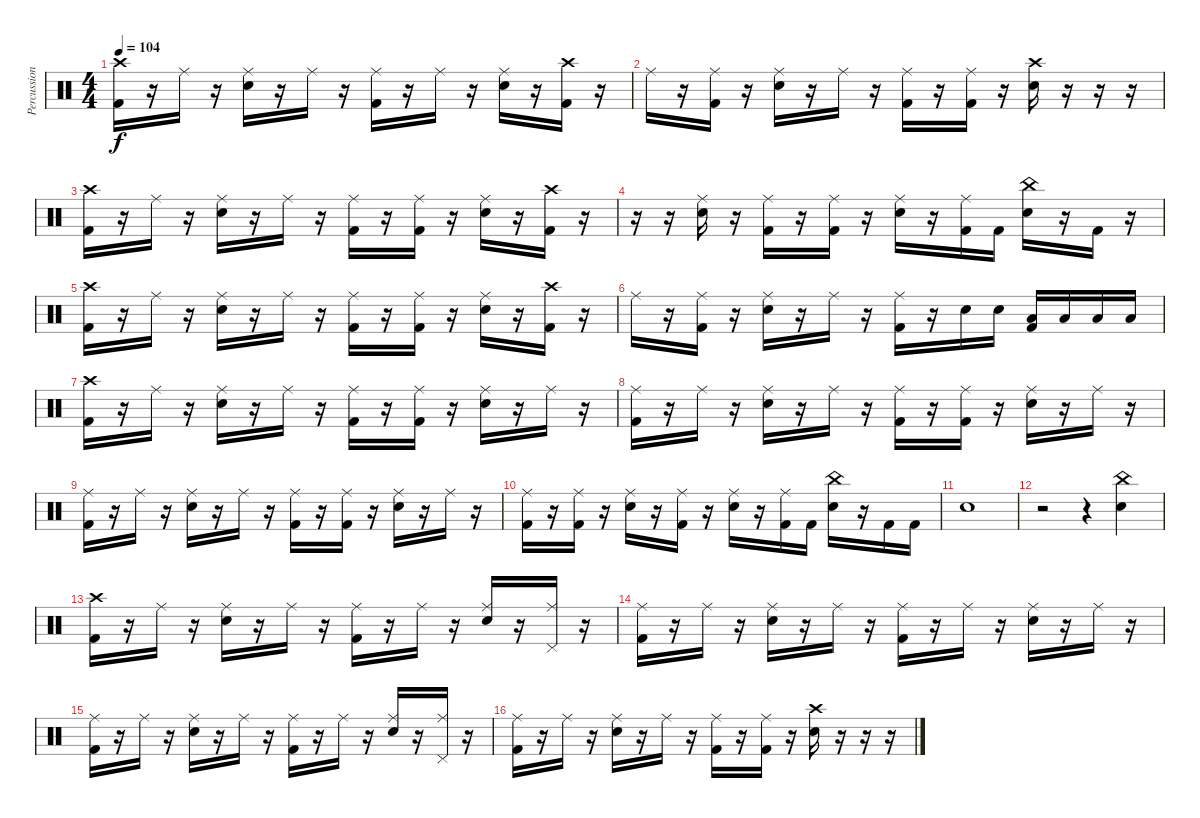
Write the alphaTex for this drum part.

\track ("Percussion" "Percussion") {instrument percussion}
\staff {score}
\articulation defaults
\ts (4 4)
\tempo 104
\clef neutral
\ks c
("Crash high (hit)" "Kick (hit) 2").16{dy f} r.16 "Ride (middle)".16 r.16 ("Ride (middle)" "Snare (hit) 2").16 r.16 "Ride (middle)".16 r.16 ("Ride (middle)" "Kick (hit) 2").16 r.16 "Ride (middle)".16 r.16 ("Ride (middle)" "Snare (hit) 2").16 r.16 ("Crash high (hit)" "Kick (hit) 2").16 r.16 |
"Ride (middle)".16 r.16 ("Ride (middle)" "Kick (hit) 2").16 r.16 ("Ride (middle)" "Snare (hit) 2").16 r.16 "Ride (middle)".16 r.16 ("Ride (middle)" "Kick (hit) 2").16 r.16 ("Ride (middle)" "Kick (hit) 2").16 r.16 ("Crash high (hit)" "Snare (hit) 2").16 r.16 r.16 r.16 |
("Crash high (hit)" "Kick (hit) 2").16 r.16 "Ride (middle)".16 r.16 ("Ride (middle)" "Snare (hit) 2").16 r.16 "Ride (middle)".16 r.16 ("Ride (middle)" "Kick (hit) 2").16 r.16 ("Ride (middle)" "Kick (hit) 2").16 r.16 ("Ride (middle)" "Snare (hit) 2").16 r.16 ("Crash high (hit)" "Kick (hit) 2").16 r.16 |
r.16 r.16 ("Ride (middle)" "Snare (hit) 2").16 r.16 ("Ride (middle)" "Kick (hit) 2").16 r.16 ("Ride (middle)" "Kick (hit) 2").16 r.16 ("Ride (middle)" "Snare (hit) 2").16 r.16 ("Ride (middle)" "Kick (hit) 2").16 "Kick (hit) 2".16 ("China (hit)" "Snare (hit) 2").16 r.16 "Kick (hit) 2".16 r.16 |
("Crash high (hit)" "Kick (hit) 2").16 r.16 "Ride (middle)".16 r.16 ("Ride (middle)" "Snare (hit) 2").16 r.16 "Ride (middle)".16 r.16 ("Ride (middle)" "Kick (hit) 2").16 r.16 ("Ride (middle)" "Kick (hit) 2").16 r.16 ("Ride (middle)" "Snare (hit) 2").16 r.16 ("Crash high (hit)" "Kick (hit) 2").16 r.16 |
"Ride (middle)".16 r.16 ("Ride (middle)" "Kick (hit) 2").16 r.16 ("Ride (middle)" "Snare (hit) 2").16 r.16 "Ride (middle)".16 r.16 ("Ride (middle)" "Kick (hit) 2").16 r.16 "Snare (hit) 2".16 "Snare (hit) 2".16 ("Low Tom (hit)" "Kick (hit) 2").16 "Low Tom (hit)".16 "Low Floor Tom (hit)".16 "Low Floor Tom (hit)".16 |
("Crash high (hit)" "Kick (hit) 2").16 r.16 "Ride (middle)".16 r.16 ("Ride (middle)" "Snare (hit) 2").16 r.16 "Ride (middle)".16 r.16 ("Ride (middle)" "Kick (hit) 2").16 r.16 ("Ride (middle)" "Kick (hit) 2").16 r.16 ("Ride (middle)" "Snare (hit) 2").16 r.16 "Ride (middle)".16 r.16 |
("Ride (middle)" "Kick (hit) 2").16 r.16 "Ride (middle)".16 r.16 ("Ride (middle)" "Snare (hit) 2").16 r.16 "Ride (middle)".16 r.16 ("Ride (middle)" "Kick (hit) 2").16 r.16 ("Ride (middle)" "Kick (hit) 2").16 r.16 ("Ride (middle)" "Snare (hit) 2").16 r.16 "Ride (middle)".16 r.16 |
("Ride (middle)" "Kick (hit) 2").16 r.16 "Ride (middle)".16 r.16 ("Ride (middle)" "Snare (hit) 2").16 r.16 "Ride (middle)".16 r.16 ("Ride (middle)" "Kick (hit) 2").16 r.16 ("Ride (middle)" "Kick (hit) 2").16 r.16 ("Ride (middle)" "Snare (hit) 2").16 r.16 "Ride (middle)".16 r.16 |
("Ride (middle)" "Kick (hit) 2").16 r.16 ("Ride (middle)" "Kick (hit) 2").16 r.16 ("Ride (middle)" "Snare (hit) 2").16 r.16 ("Ride (middle)" "Kick (hit) 2").16 r.16 ("Ride (middle)" "Snare (hit) 2").16 r.16 ("Ride (middle)" "Kick (hit) 2").16 "Kick (hit) 2".16 ("China (hit)" "Snare (hit) 2").16 r.16 "Kick (hit) 2".16 "Kick (hit) 2".16 |
"Snare (hit) 2".1 |
r.2 r.4 ("China (hit)" "Snare (hit) 2").4 |
("Crash high (hit)" "Kick (hit) 2").16 r.16 "Ride (middle)".16 r.16 ("Ride (middle)" "Snare (hit) 2").16 r.16 "Ride (middle)".16 r.16 ("Ride (middle)" "Kick (hit) 2").16 r.16 "Ride (middle)".16 r.16 ("Ride (middle)" "Snare (hit) 2").16 r.16 ("Ride (middle)" "Pedal Hi-Hat (hit)").16 r.16 |
("Ride (middle)" "Kick (hit) 2").16 r.16 "Ride (middle)".16 r.16 ("Ride (middle)" "Snare (hit) 2").16 r.16 "Ride (middle)".16 r.16 ("Ride (middle)" "Kick (hit) 2").16 r.16 "Ride (middle)".16 r.16 ("Ride (middle)" "Snare (hit) 2").16 r.16 "Ride (middle)".16 r.16 |
("Ride (middle)" "Kick (hit) 2").16 r.16 "Ride (middle)".16 r.16 ("Ride (middle)" "Snare (hit) 2").16 r.16 "Ride (middle)".16 r.16 ("Ride (middle)" "Kick (hit) 2").16 r.16 "Ride (middle)".16 r.16 ("Ride (middle)" "Snare (hit) 2").16 r.16 ("Ride (middle)" "Pedal Hi-Hat (hit)").16 r.16 |
("Ride (middle)" "Kick (hit) 2").16 r.16 "Ride (middle)".16 r.16 ("Ride (middle)" "Snare (hit) 2").16 r.16 "Ride (middle)".16 r.16 ("Ride (middle)" "Kick (hit) 2").16 r.16 ("Ride (middle)" "Kick (hit) 2").16 r.16 ("Crash high (hit)" "Snare (hit) 2").16 r.16 r.16 r.16
